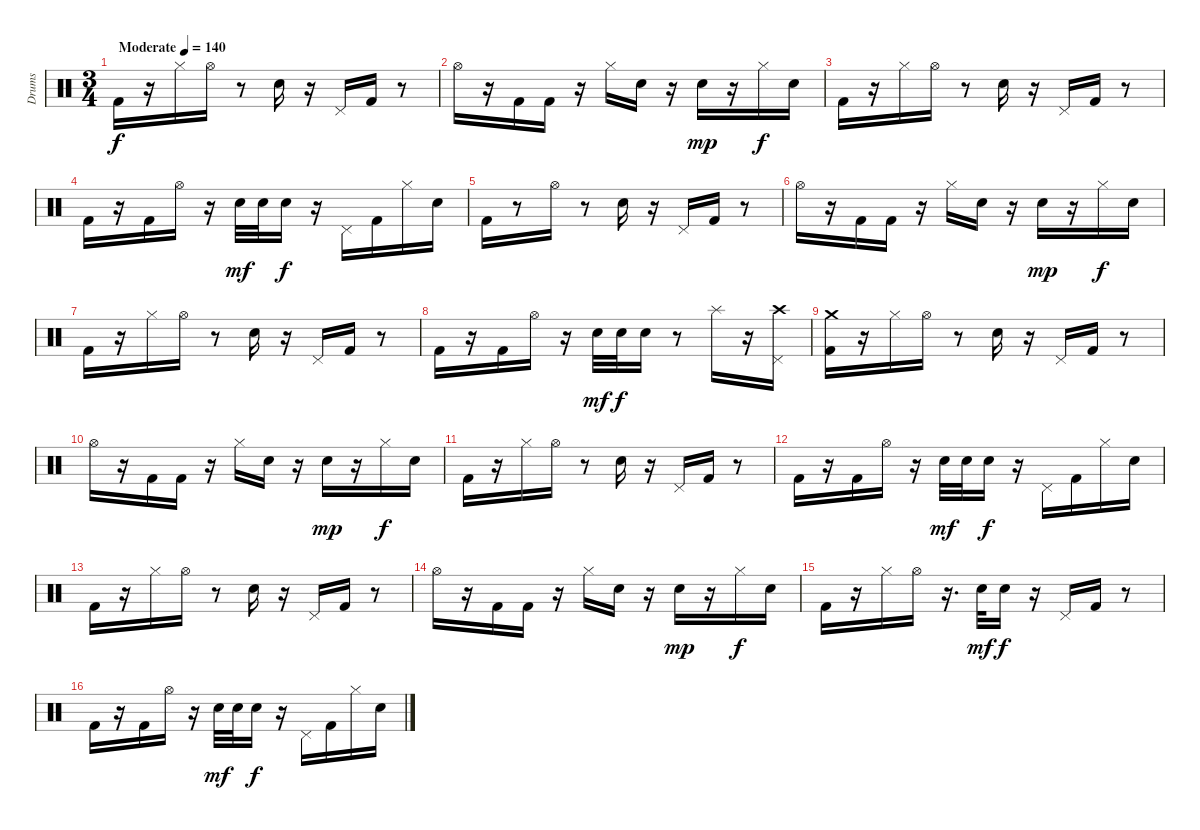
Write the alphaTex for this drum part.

\track ("Drums" "Drums") {instrument percussion}
\staff {score}
\articulation defaults
\ts (3 4)
\tempo (140 "Moderate")
\clef neutral
\ks c "Kick (hit) 2".16{dy f}
r.16 "Hi-Hat (closed)".16 "Hi-Hat (open)".16 r.8 "Electric Snare (hit)".16 r.16 "Pedal Hi-Hat (hit)".16 "Kick (hit) 2".16 r.8 |
"Hi-Hat (open)".16 r.16 "Kick (hit) 2".16 "Kick (hit) 2".16 r.16 "Hi-Hat (closed)".16 "Electric Snare (hit)".16 r.16 "Electric Snare (hit)".16{dy mp} r.16 "Hi-Hat (closed)".16{dy f} "Electric Snare (hit)".16 |
"Kick (hit) 2".16 r.16 "Hi-Hat (closed)".16 "Hi-Hat (open)".16 r.8 "Electric Snare (hit)".16 r.16 "Pedal Hi-Hat (hit)".16 "Kick (hit) 2".16 r.8 |
"Kick (hit) 2".16 r.16 "Kick (hit) 2".16 "Hi-Hat (open)".16 r.16 "Electric Snare (hit)".32{dy mf} "Electric Snare (hit)".32 "Electric Snare (hit)".16{dy f} r.16 "Pedal Hi-Hat (hit)".16 "Kick (hit) 2".16 "Hi-Hat (closed)".16 "Electric Snare (hit)".16 |
"Kick (hit) 2".16 r.8 "Hi-Hat (open)".16 r.8 "Electric Snare (hit)".16 r.16 "Pedal Hi-Hat (hit)".16 "Kick (hit) 2".16 r.8 |
"Hi-Hat (open)".16 r.16 "Kick (hit) 2".16 "Kick (hit) 2".16 r.16 "Hi-Hat (closed)".16 "Electric Snare (hit)".16 r.16 "Electric Snare (hit)".16{dy mp} r.16 "Hi-Hat (closed)".16{dy f} "Electric Snare (hit)".16 |
"Kick (hit) 2".16 r.16 "Hi-Hat (closed)".16 "Hi-Hat (open)".16 r.8 "Electric Snare (hit)".16 r.16 "Pedal Hi-Hat (hit)".16 "Kick (hit) 2".16 r.8 |
"Kick (hit) 2".16 r.16 "Kick (hit) 2".16 "Hi-Hat (open)".16 r.16 "Electric Snare (hit)".32{dy mf} "Electric Snare (hit)".32{dy f} "Electric Snare (hit)".16 r.8 "Splash (hit)".16 r.16 ("Pedal Hi-Hat (hit)" "Crash high (hit)").16 |
("Kick (hit) 2" "Crash medium (hit)").16 r.16 "Hi-Hat (closed)".16 "Hi-Hat (open)".16 r.8 "Electric Snare (hit)".16 r.16 "Pedal Hi-Hat (hit)".16 "Kick (hit) 2".16 r.8 |
"Hi-Hat (open)".16 r.16 "Kick (hit) 2".16 "Kick (hit) 2".16 r.16 "Hi-Hat (closed)".16 "Electric Snare (hit)".16 r.16 "Electric Snare (hit)".16{dy mp} r.16 "Hi-Hat (closed)".16{dy f} "Electric Snare (hit)".16 |
"Kick (hit) 2".16 r.16 "Hi-Hat (closed)".16 "Hi-Hat (open)".16 r.8 "Electric Snare (hit)".16 r.16 "Pedal Hi-Hat (hit)".16 "Kick (hit) 2".16 r.8 |
"Kick (hit) 2".16 r.16 "Kick (hit) 2".16 "Hi-Hat (open)".16 r.16 "Electric Snare (hit)".32{dy mf} "Electric Snare (hit)".32 "Electric Snare (hit)".16{dy f} r.16 "Pedal Hi-Hat (hit)".16 "Kick (hit) 2".16 "Hi-Hat (closed)".16 "Electric Snare (hit)".16 |
"Kick (hit) 2".16 r.16 "Hi-Hat (closed)".16 "Hi-Hat (open)".16 r.8 "Electric Snare (hit)".16 r.16 "Pedal Hi-Hat (hit)".16 "Kick (hit) 2".16 r.8 |
"Hi-Hat (open)".16 r.16 "Kick (hit) 2".16 "Kick (hit) 2".16 r.16 "Hi-Hat (closed)".16 "Electric Snare (hit)".16 r.16 "Electric Snare (hit)".16{dy mp} r.16 "Hi-Hat (closed)".16{dy f} "Electric Snare (hit)".16 |
"Kick (hit) 2".16 r.16 "Hi-Hat (closed)".16 "Hi-Hat (open)".16 r.16{d} "Electric Snare (hit)".32{dy mf} "Electric Snare (hit)".16{dy f} r.16 "Pedal Hi-Hat (hit)".16 "Kick (hit) 2".16 r.8 |
"Kick (hit) 2".16 r.16 "Kick (hit) 2".16 "Hi-Hat (open)".16 r.16 "Electric Snare (hit)".32{dy mf} "Electric Snare (hit)".32 "Electric Snare (hit)".16{dy f} r.16 "Pedal Hi-Hat (hit)".16 "Kick (hit) 2".16 "Hi-Hat (closed)".16 "Electric Snare (hit)".16
